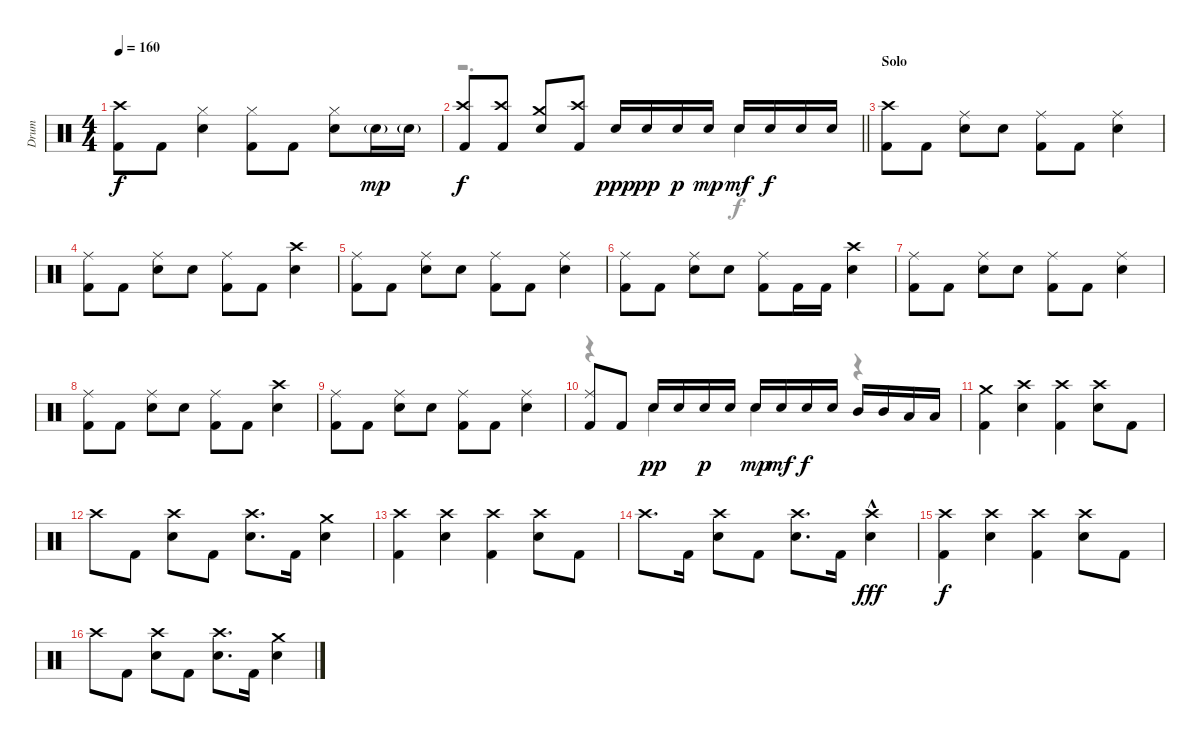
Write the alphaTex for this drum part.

\track ("Drum" "Drum") {instrument percussion}
\staff {score}
\articulation defaults
\voice
\ts (4 4)
\tempo 160
\clef neutral
\ks c
("Crash high (hit)" "Kick (hit) 2").8{dy f} "Kick (hit) 2".8 ("Hi-Hat (closed)" "Electric Snare (hit)").4 ("Hi-Hat (closed)" "Kick (hit) 2").8 "Kick (hit) 2".8 ("Hi-Hat (closed)" "Electric Snare (hit)").8 "Electric Snare (hit)"{g}.16{dy mp} "Electric Snare (hit)"{g}.16 |
\barLineRight lightlight
("Crash high (hit)" "Kick (hit) 2").8{dy f} ("Crash high (hit)" "Kick (hit) 2").8 ("Crash medium (hit)" "Electric Snare (hit)").8 ("Crash high (hit)" "Kick (hit) 2").8 "Electric Snare (hit)".16{dy ppp} "Electric Snare (hit)".16{dy pp} "Electric Snare (hit)".16{dy p} "Electric Snare (hit)".16{dy mp} "Electric Snare (hit)".16{dy mf} "Electric Snare (hit)".16{dy f} "Electric Snare (hit)".16 "Electric Snare (hit)".16 |
\section ("" "Solo")
("Crash high (hit)" "Kick (hit) 2").8 "Kick (hit) 2".8 ("Ride (middle)" "Electric Snare (hit)").8 "Electric Snare (hit)".8 ("Ride (middle)" "Kick (hit) 2").8 "Kick (hit) 2".8 ("Ride (middle)" "Electric Snare (hit)").4 |
("Ride (middle)" "Kick (hit) 2").8 "Kick (hit) 2".8 ("Ride (middle)" "Electric Snare (hit)").8 "Electric Snare (hit)".8 ("Ride (middle)" "Kick (hit) 2").8 "Kick (hit) 2".8 ("Crash high (hit)" "Electric Snare (hit)").4 |
("Ride (middle)" "Kick (hit) 2").8 "Kick (hit) 2".8 ("Ride (middle)" "Electric Snare (hit)").8 "Electric Snare (hit)".8 ("Ride (middle)" "Kick (hit) 2").8 "Kick (hit) 2".8 ("Ride (middle)" "Electric Snare (hit)").4 |
("Ride (middle)" "Kick (hit) 2").8 "Kick (hit) 2".8 ("Ride (middle)" "Electric Snare (hit)").8 "Electric Snare (hit)".8 ("Ride (middle)" "Kick (hit) 2").8 "Kick (hit) 2".16 "Kick (hit) 2".16 ("Crash high (hit)" "Electric Snare (hit)").4 |
("Ride (middle)" "Kick (hit) 2").8 "Kick (hit) 2".8 ("Ride (middle)" "Electric Snare (hit)").8 "Electric Snare (hit)".8 ("Ride (middle)" "Kick (hit) 2").8 "Kick (hit) 2".8 ("Ride (middle)" "Electric Snare (hit)").4 |
("Ride (middle)" "Kick (hit) 2").8 "Kick (hit) 2".8 ("Ride (middle)" "Electric Snare (hit)").8 "Electric Snare (hit)".8 ("Ride (middle)" "Kick (hit) 2").8 "Kick (hit) 2".8 ("Crash high (hit)" "Electric Snare (hit)").4 |
("Ride (middle)" "Kick (hit) 2").8 "Kick (hit) 2".8 ("Ride (middle)" "Electric Snare (hit)").8 "Electric Snare (hit)".8 ("Ride (middle)" "Kick (hit) 2").8 "Kick (hit) 2".8 ("Ride (middle)" "Electric Snare (hit)").4 |
("Ride (middle)" "Kick (hit) 2").8 "Kick (hit) 2".8 "Electric Snare (hit)".16{dy pp} "Electric Snare (hit)".16 "Electric Snare (hit)".16{dy p} "Electric Snare (hit)".16 "Electric Snare (hit)".16{dy mp} "Electric Snare (hit)".16{dy mf} "Electric Snare (hit)".16{dy f} "Electric Snare (hit)".16 "Mid Tom (hit)".16 "Mid Tom (hit)".16 "Low Tom (hit)".16 "Low Tom (hit)".16 |
("Crash medium (hit)" "Kick (hit) 2").4 ("Crash high (hit)" "Electric Snare (hit)").4 ("Crash high (hit)" "Kick (hit) 2").4 ("Crash high (hit)" "Electric Snare (hit)").8 "Kick (hit) 2".8 |
"Crash high (hit)".8 "Kick (hit) 2".8 ("Crash high (hit)" "Electric Snare (hit)").8 "Kick (hit) 2".8 ("Crash high (hit)" "Electric Snare (hit)").8{d} "Kick (hit) 2".16 ("Crash medium (hit)" "Electric Snare (hit)").4 |
("Crash high (hit)" "Kick (hit) 2").4 ("Crash high (hit)" "Electric Snare (hit)").4 ("Crash high (hit)" "Kick (hit) 2").4 ("Crash high (hit)" "Electric Snare (hit)").8 "Kick (hit) 2".8 |
"Crash high (hit)".8{d} "Kick (hit) 2".16 ("Crash high (hit)" "Electric Snare (hit)").8 "Kick (hit) 2".8 ("Crash high (hit)" "Electric Snare (hit)").8{d} "Kick (hit) 2".16 ("Crash high (hit)"{hac} "Electric Snare (hit)").4{dy fff} |
("Crash high (hit)" "Kick (hit) 2").4{dy f} ("Crash high (hit)" "Electric Snare (hit)").4 ("Crash high (hit)" "Kick (hit) 2").4 ("Crash high (hit)" "Electric Snare (hit)").8 "Kick (hit) 2".8 |
"Crash high (hit)".8 "Kick (hit) 2".8 ("Crash high (hit)" "Electric Snare (hit)").8 "Kick (hit) 2".8 ("Crash high (hit)" "Electric Snare (hit)").8{d} "Kick (hit) 2".16 ("Crash medium (hit)" "Electric Snare (hit)").4
\voice
\clef neutral
\ottava regular
\simile none
\ks c
|
\barLineRight lightlight
r.2{d} "Electric Snare (hit)".4 |
|
|
|
|
|
|
|
r.4 "Electric Snare (hit)".4 "Electric Snare (hit)".4 r.4 |
|
|
|
|
|
